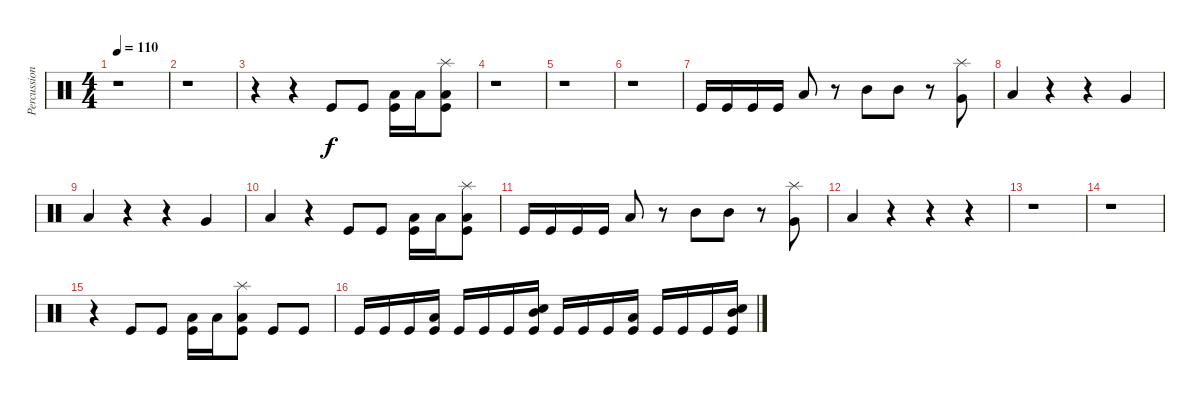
\track ("Percussion" "Percussion") {instrument percussion}
\staff {score}
\articulation defaults
\ts (4 4)
\tempo 110
\clef neutral
\ks c
r.1{dy f} |
r.1 |
r.4 r.4 "Kick (hit)".8 "Kick (hit)".8 ("Low Tom (hit)" "Kick (hit)").16 "Low Tom (hit)".16 ("Splash (hit)" "Low Tom (hit)" "Kick (hit)").8 |
r.1 |
r.1 |
r.1 |
"Kick (hit)".16 "Kick (hit)".16 "Kick (hit)".16 "Kick (hit)".16 "Low Tom (hit)".8 r.8 "Mid Tom (hit)".8 "Mid Tom (hit)".8 r.8 ("Splash (hit)" "Very Low Tom (hit)").8 |
"Low Tom (hit)".4 r.4 r.4 "Very Low Tom (hit)".4 |
"Low Tom (hit)".4 r.4 r.4 "Very Low Tom (hit)".4 |
"Low Tom (hit)".4 r.4 "Kick (hit)".8 "Kick (hit)".8 ("Low Tom (hit)" "Kick (hit)").16 "Low Tom (hit)".16 ("Splash (hit)" "Low Tom (hit)" "Kick (hit)").8 |
"Kick (hit)".16 "Kick (hit)".16 "Kick (hit)".16 "Kick (hit)".16 "Low Tom (hit)".8 r.8 "Mid Tom (hit)".8 "Mid Tom (hit)".8 r.8 ("Splash (hit)" "Very Low Tom (hit)").8 |
"Low Tom (hit)".4 r.4 r.4 r.4 |
r.1 |
r.1 |
r.4 "Kick (hit)".8 "Kick (hit)".8 ("Low Tom (hit)" "Kick (hit)").16 "Low Tom (hit)".16 ("Splash (hit)" "Low Tom (hit)" "Kick (hit)").8 "Kick (hit)".8 "Kick (hit)".8 |
"Kick (hit)".16 "Kick (hit)".16 "Kick (hit)".16 ("Low Tom (hit)" "Kick (hit)").16 "Kick (hit)".16 "Kick (hit)".16 "Kick (hit)".16 ("Mid Tom (hit)" "Electric Snare (hit)" "Kick (hit)").16 "Kick (hit)".16 "Kick (hit)".16 "Kick (hit)".16 ("Low Tom (hit)" "Kick (hit)").16 "Kick (hit)".16 "Kick (hit)".16 "Kick (hit)".16 ("Mid Tom (hit)" "Electric Snare (hit)" "Kick (hit)").16
